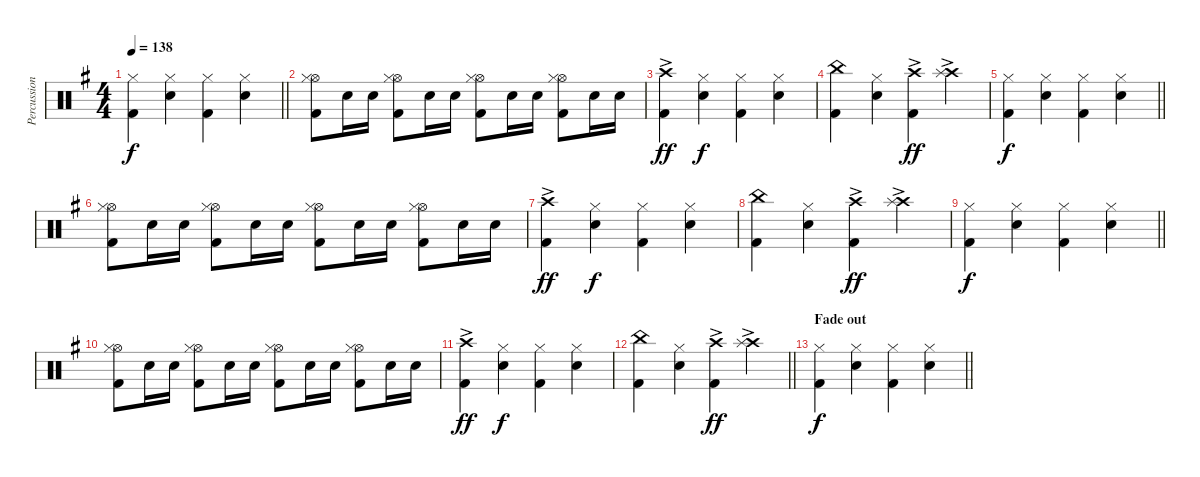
\track ("Percussion" "Percussion") {instrument percussion}
\staff {score}
\articulation defaults
\ts (4 4)
\tempo 138
\clef neutral
\barLineRight lightlight
\ks g
("Hi-Hat (closed)" "Kick (hit) 2").4{dy f} ("Hi-Hat (closed)" "Snare (hit) 2").4 ("Hi-Hat (closed)" "Kick (hit) 2").4 ("Hi-Hat (closed)" "Snare (hit) 2").4 |
("Hi-Hat (open)" "Hi-Hat (closed)" "Kick (hit) 2").8 "Snare (hit) 2".16 "Snare (hit) 2".16 ("Hi-Hat (open)" "Hi-Hat (closed)" "Kick (hit) 2").8 "Snare (hit) 2".16 "Snare (hit) 2".16 ("Hi-Hat (open)" "Hi-Hat (closed)" "Kick (hit) 2").8 "Snare (hit) 2".16 "Snare (hit) 2".16 ("Hi-Hat (open)" "Hi-Hat (closed)" "Kick (hit) 2").8 "Snare (hit) 2".16 "Snare (hit) 2".16 |
("Crash high (hit)"{ac} "Kick (hit) 2").4{dy ff} ("Hi-Hat (closed)" "Snare (hit) 2").4{dy f} ("Hi-Hat (closed)" "Kick (hit) 2").4 ("Hi-Hat (closed)" "Snare (hit) 2").4 |
("China (hit)" "Kick (hit) 2").4 ("Hi-Hat (closed)" "Snare (hit) 2").4 ("Crash high (hit)"{ac} "Kick (hit) 2"{ac}).4{dy ff} ("Crash high (hit)"{ac} "Splash (hit)"{ac}).4 |
\barLineRight lightlight
("Hi-Hat (closed)" "Kick (hit) 2").4{dy f} ("Hi-Hat (closed)" "Snare (hit) 2").4 ("Hi-Hat (closed)" "Kick (hit) 2").4 ("Hi-Hat (closed)" "Snare (hit) 2").4 |
("Hi-Hat (open)" "Hi-Hat (closed)" "Kick (hit) 2").8 "Snare (hit) 2".16 "Snare (hit) 2".16 ("Hi-Hat (open)" "Hi-Hat (closed)" "Kick (hit) 2").8 "Snare (hit) 2".16 "Snare (hit) 2".16 ("Hi-Hat (open)" "Hi-Hat (closed)" "Kick (hit) 2").8 "Snare (hit) 2".16 "Snare (hit) 2".16 ("Hi-Hat (open)" "Hi-Hat (closed)" "Kick (hit) 2").8 "Snare (hit) 2".16 "Snare (hit) 2".16 |
("Crash high (hit)"{ac} "Kick (hit) 2").4{dy ff} ("Hi-Hat (closed)" "Snare (hit) 2").4{dy f} ("Hi-Hat (closed)" "Kick (hit) 2").4 ("Hi-Hat (closed)" "Snare (hit) 2").4 |
("China (hit)" "Kick (hit) 2").4 ("Hi-Hat (closed)" "Snare (hit) 2").4 ("Crash high (hit)"{ac} "Kick (hit) 2"{ac}).4{dy ff} ("Crash high (hit)"{ac} "Splash (hit)"{ac}).4 |
\barLineRight lightlight
("Hi-Hat (closed)" "Kick (hit) 2").4{dy f} ("Hi-Hat (closed)" "Snare (hit) 2").4 ("Hi-Hat (closed)" "Kick (hit) 2").4 ("Hi-Hat (closed)" "Snare (hit) 2").4 |
("Hi-Hat (open)" "Hi-Hat (closed)" "Kick (hit) 2").8 "Snare (hit) 2".16 "Snare (hit) 2".16 ("Hi-Hat (open)" "Hi-Hat (closed)" "Kick (hit) 2").8 "Snare (hit) 2".16 "Snare (hit) 2".16 ("Hi-Hat (open)" "Hi-Hat (closed)" "Kick (hit) 2").8 "Snare (hit) 2".16 "Snare (hit) 2".16 ("Hi-Hat (open)" "Hi-Hat (closed)" "Kick (hit) 2").8 "Snare (hit) 2".16 "Snare (hit) 2".16 |
("Crash high (hit)"{ac} "Kick (hit) 2").4{dy ff} ("Hi-Hat (closed)" "Snare (hit) 2").4{dy f} ("Hi-Hat (closed)" "Kick (hit) 2").4 ("Hi-Hat (closed)" "Snare (hit) 2").4 |
\barLineRight lightlight
("China (hit)" "Kick (hit) 2").4 ("Hi-Hat (closed)" "Snare (hit) 2").4 ("Crash high (hit)"{ac} "Kick (hit) 2"{ac}).4{dy ff} ("Crash high (hit)"{ac} "Splash (hit)"{ac}).4 |
\section ("" "Fade out")
\barLineRight lightlight
("Hi-Hat (closed)" "Kick (hit) 2").4{dy f} ("Hi-Hat (closed)" "Snare (hit) 2").4 ("Hi-Hat (closed)" "Kick (hit) 2").4 ("Hi-Hat (closed)" "Snare (hit) 2").4
